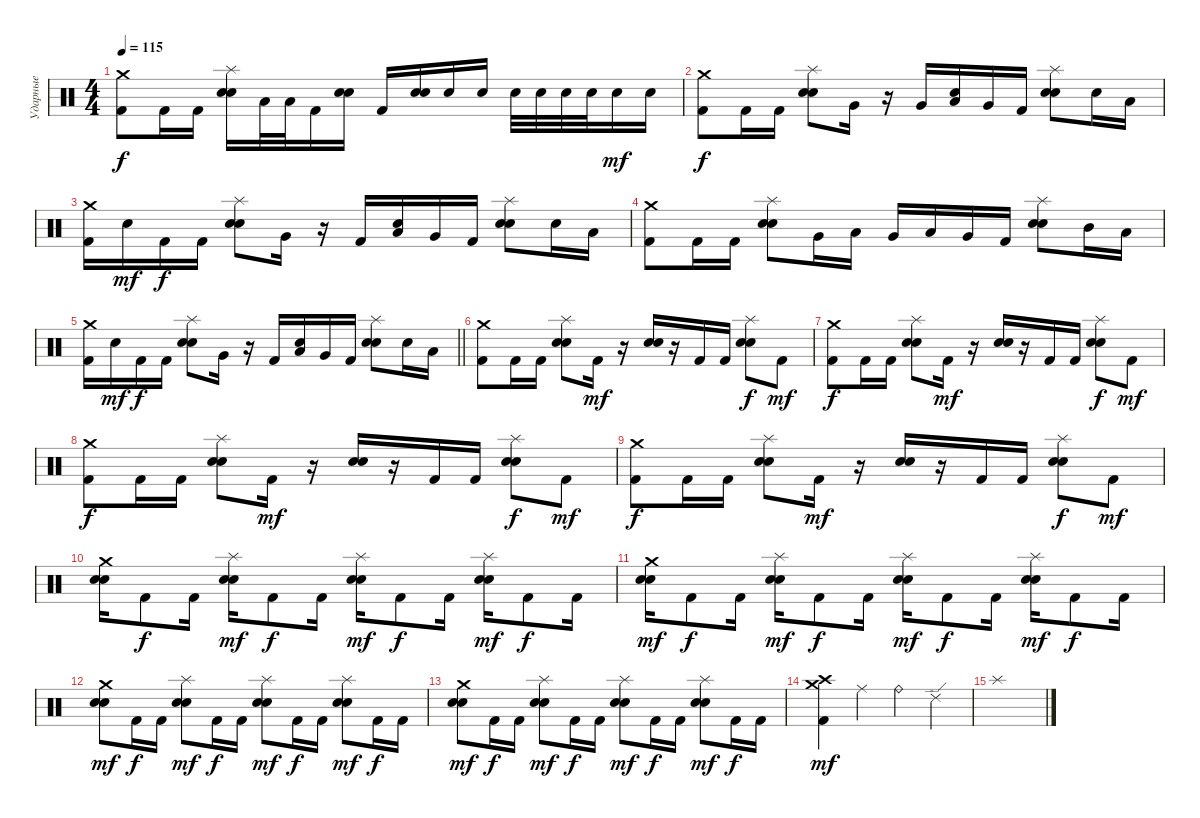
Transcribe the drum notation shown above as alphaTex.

\track ("Ударные" "Ударные") {instrument percussion}
\staff {score}
\articulation defaults
\ts (4 4)
\tempo 115
\clef neutral
\ks c
("Crash medium (hit)" "Kick (hit) 2").8{dy f} "Kick (hit) 2".16 "Kick (hit) 2".16 ("Splash (hit)" "Electric Snare (hit)" "Snare (hit) 2").16 "Low Tom (hit)".32 "Low Tom (hit)".32 "Kick (hit) 2".16 ("Electric Snare (hit)" "Snare (hit) 2").16 "Kick (hit) 2".16 ("Electric Snare (hit)" "Snare (hit) 2").16 "Electric Snare (hit)".16 "Electric Snare (hit)".16 "Electric Snare (hit)".32 "Electric Snare (hit)".32 "Electric Snare (hit)".32 "Electric Snare (hit)".32 "Electric Snare (hit)".16{dy mf} "Electric Snare (hit)".16 |
("Crash medium (hit)" "Kick (hit) 2").8{dy f} "Kick (hit) 2".16 "Kick (hit) 2".16 ("Splash (hit)" "Electric Snare (hit)" "Snare (hit) 2").8 "Very Low Tom (hit)".16 r.16 "Very Low Tom (hit)".16 ("Electric Snare (hit)" "Low Tom (hit)").16 "Very Low Tom (hit)".16 "Kick (hit) 2".16 ("Splash (hit)" "Electric Snare (hit)" "Snare (hit) 2").8 "Electric Snare (hit)".16 "Low Tom (hit)".16 |
("Crash medium (hit)" "Kick (hit) 2").16 "Electric Snare (hit)".16{dy mf} "Kick (hit) 2".16{dy f} "Kick (hit) 2".16 ("Splash (hit)" "Electric Snare (hit)" "Snare (hit) 2").8 "Very Low Tom (hit)".16 r.16 "Kick (hit) 2".16 ("Electric Snare (hit)" "Low Tom (hit)").16 "Very Low Tom (hit)".16 "Kick (hit) 2".16 ("Splash (hit)" "Electric Snare (hit)" "Snare (hit) 2").8 "Electric Snare (hit)".16 "Low Tom (hit)".16 |
("Crash medium (hit)" "Kick (hit) 2").8 "Kick (hit) 2".16 "Kick (hit) 2".16 ("Splash (hit)" "Electric Snare (hit)" "Snare (hit) 2").8 "Very Low Tom (hit)".16 "Low Tom (hit)".16 "Very Low Tom (hit)".16 "Low Tom (hit)".16 "Very Low Tom (hit)".16 "Kick (hit) 2".16 ("Splash (hit)" "Electric Snare (hit)" "Snare (hit) 2").8 "Mid Tom (hit)".16 "Low Tom (hit)".16 |
\barLineRight lightlight
("Crash medium (hit)" "Kick (hit) 2").16 "Electric Snare (hit)".16{dy mf} "Kick (hit) 2".16{dy f} "Kick (hit) 2".16 ("Splash (hit)" "Electric Snare (hit)" "Snare (hit) 2").8 "Very Low Tom (hit)".16 r.16 "Kick (hit) 2".16 ("Electric Snare (hit)" "Low Tom (hit)").16 "Very Low Tom (hit)".16 "Kick (hit) 2".16 ("Splash (hit)" "Electric Snare (hit)" "Snare (hit) 2").8 "Electric Snare (hit)".16 "Low Tom (hit)".16 |
("Crash medium (hit)" "Kick (hit) 2").8 "Kick (hit) 2".16 "Kick (hit) 2".16 ("Splash (hit)" "Electric Snare (hit)" "Snare (hit) 2").8 "Kick (hit) 2".16{dy mf} r.16 ("Electric Snare (hit)" "Snare (hit) 2").16 r.16 "Kick (hit) 2".16 "Kick (hit) 2".16 ("Splash (hit)" "Electric Snare (hit)" "Snare (hit) 2").8{dy f} "Kick (hit) 2".8{dy mf} |
("Crash medium (hit)" "Kick (hit) 2").8{dy f} "Kick (hit) 2".16 "Kick (hit) 2".16 ("Splash (hit)" "Electric Snare (hit)" "Snare (hit) 2").8 "Kick (hit) 2".16{dy mf} r.16 ("Electric Snare (hit)" "Snare (hit) 2").16 r.16 "Kick (hit) 2".16 "Kick (hit) 2".16 ("Splash (hit)" "Electric Snare (hit)" "Snare (hit) 2").8{dy f} "Kick (hit) 2".8{dy mf} |
("Crash medium (hit)" "Kick (hit) 2").8{dy f} "Kick (hit) 2".16 "Kick (hit) 2".16 ("Splash (hit)" "Electric Snare (hit)" "Snare (hit) 2").8 "Kick (hit) 2".16{dy mf} r.16 ("Electric Snare (hit)" "Snare (hit) 2").16 r.16 "Kick (hit) 2".16 "Kick (hit) 2".16 ("Splash (hit)" "Electric Snare (hit)" "Snare (hit) 2").8{dy f} "Kick (hit) 2".8{dy mf} |
("Crash medium (hit)" "Kick (hit) 2").8{dy f} "Kick (hit) 2".16 "Kick (hit) 2".16 ("Splash (hit)" "Electric Snare (hit)" "Snare (hit) 2").8 "Kick (hit) 2".16{dy mf} r.16 ("Electric Snare (hit)" "Snare (hit) 2").16 r.16 "Kick (hit) 2".16 "Kick (hit) 2".16 ("Splash (hit)" "Electric Snare (hit)" "Snare (hit) 2").8{dy f} "Kick (hit) 2".8{dy mf} |
("Crash medium (hit)" "Electric Snare (hit)" "Snare (hit) 2").16 "Kick (hit) 2".8{dy f} "Kick (hit) 2".16 ("Splash (hit)" "Electric Snare (hit)" "Snare (hit) 2").16{dy mf} "Kick (hit) 2".8{dy f} "Kick (hit) 2".16 ("Splash (hit)" "Electric Snare (hit)" "Snare (hit) 2").16{dy mf} "Kick (hit) 2".8{dy f} "Kick (hit) 2".16 ("Splash (hit)" "Electric Snare (hit)" "Snare (hit) 2").16{dy mf} "Kick (hit) 2".8{dy f} "Kick (hit) 2".16 |
("Crash medium (hit)" "Electric Snare (hit)" "Snare (hit) 2").16{dy mf} "Kick (hit) 2".8{dy f} "Kick (hit) 2".16 ("Splash (hit)" "Electric Snare (hit)" "Snare (hit) 2").16{dy mf} "Kick (hit) 2".8{dy f} "Kick (hit) 2".16 ("Splash (hit)" "Electric Snare (hit)" "Snare (hit) 2").16{dy mf} "Kick (hit) 2".8{dy f} "Kick (hit) 2".16 ("Splash (hit)" "Electric Snare (hit)" "Snare (hit) 2").16{dy mf} "Kick (hit) 2".8{dy f} "Kick (hit) 2".16 |
("Crash medium (hit)" "Electric Snare (hit)" "Snare (hit) 2").8{dy mf} "Kick (hit) 2".16{dy f} "Kick (hit) 2".16 ("Splash (hit)" "Electric Snare (hit)" "Snare (hit) 2").8{dy mf} "Kick (hit) 2".16{dy f} "Kick (hit) 2".16 ("Splash (hit)" "Electric Snare (hit)" "Snare (hit) 2").8{dy mf} "Kick (hit) 2".16{dy f} "Kick (hit) 2".16 ("Splash (hit)" "Electric Snare (hit)" "Snare (hit) 2").8{dy mf} "Kick (hit) 2".16{dy f} "Kick (hit) 2".16 |
("Crash medium (hit)" "Electric Snare (hit)" "Snare (hit) 2").8{dy mf} "Kick (hit) 2".16{dy f} "Kick (hit) 2".16 ("Splash (hit)" "Electric Snare (hit)" "Snare (hit) 2").8{dy mf} "Kick (hit) 2".16{dy f} "Kick (hit) 2".16 ("Splash (hit)" "Electric Snare (hit)" "Snare (hit) 2").8{dy mf} "Kick (hit) 2".16{dy f} "Kick (hit) 2".16 ("Splash (hit)" "Electric Snare (hit)" "Snare (hit) 2").8{dy mf} "Kick (hit) 2".16{dy f} "Kick (hit) 2".16 |
("Crash medium (hit)" "Crash high (hit)" "Kick (hit) 2").4{dy mf} "Ride (middle)".4 "Ride (bell)".4 "Ride (edge) 2".4 |
"Splash (hit)".1
